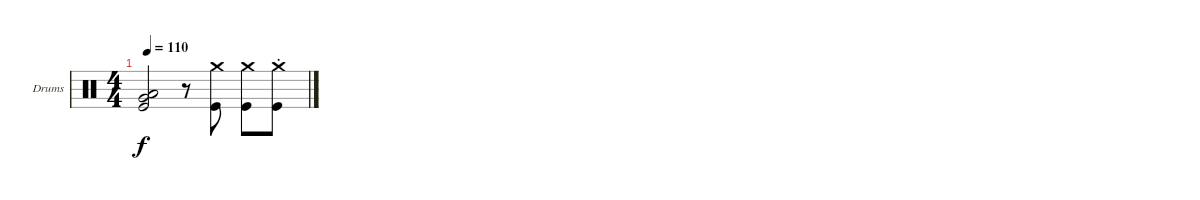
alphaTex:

\defaultSystemsLayout 4
\bracketExtendMode groupsimilarinstruments
\firstSystemTrackNameOrientation horizontal
\otherSystemsTrackNameOrientation horizontal
\track ("Drumkit" "Drums") {instrument percussion}
\staff {score}
\articulation defaults
\ts (4 4)
\tempo 110
\clef neutral
\ks c
("Very Low Tom (hit)" "Low Tom (hit)" "Kick (hit)").2{dy f} r.8 ("Kick (hit)" "Crash medium (hit)").8 ("Kick (hit)" "Crash medium (hit)").8 ("Kick (hit)" "Crash medium (hit)"{st}).8
